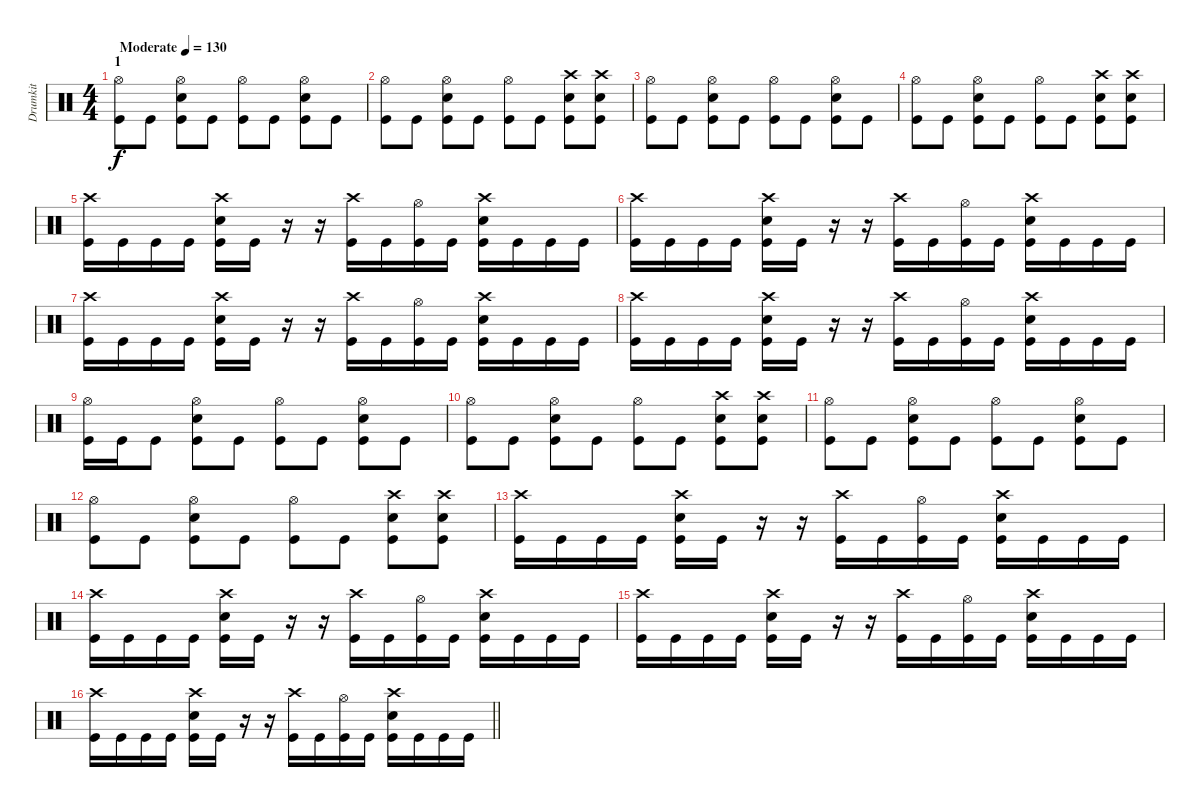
\track ("Drumkit" "Drumkit") {instrument percussion}
\staff {score}
\articulation defaults
\ts (4 4)
\section ("" "1")
\tempo (130 "Moderate")
\clef neutral
\ks c
("Hi-Hat (open)" "Kick (hit)").8{dy f} "Kick (hit)".8 ("Hi-Hat (open)" "Snare (hit) 2" "Kick (hit)").8 "Kick (hit)".8 ("Hi-Hat (open)" "Kick (hit)").8 "Kick (hit)".8 ("Hi-Hat (open)" "Snare (hit) 2" "Kick (hit)").8 "Kick (hit)".8 |
("Hi-Hat (open)" "Kick (hit)").8 "Kick (hit)".8 ("Hi-Hat (open)" "Snare (hit) 2" "Kick (hit)").8 "Kick (hit)".8 ("Hi-Hat (open)" "Kick (hit)").8 "Kick (hit)".8 ("Crash high (hit)" "Snare (hit) 2" "Kick (hit)").8 ("Crash high (hit)" "Snare (hit) 2" "Kick (hit)").8 |
("Hi-Hat (open)" "Kick (hit)").8 "Kick (hit)".8 ("Hi-Hat (open)" "Snare (hit) 2" "Kick (hit)").8 "Kick (hit)".8 ("Hi-Hat (open)" "Kick (hit)").8 "Kick (hit)".8 ("Hi-Hat (open)" "Snare (hit) 2" "Kick (hit)").8 "Kick (hit)".8 |
("Hi-Hat (open)" "Kick (hit)").8 "Kick (hit)".8 ("Hi-Hat (open)" "Snare (hit) 2" "Kick (hit)").8 "Kick (hit)".8 ("Hi-Hat (open)" "Kick (hit)").8 "Kick (hit)".8 ("Crash high (hit)" "Snare (hit) 2" "Kick (hit)").8 ("Crash high (hit)" "Snare (hit) 2" "Kick (hit)").8 |
("Crash high (hit)" "Kick (hit)").16 "Kick (hit)".16 "Kick (hit)".16 "Kick (hit)".16 ("Crash high (hit)" "Snare (hit) 2" "Kick (hit)").16 "Kick (hit)".16 r.16 r.16 ("Crash high (hit)" "Kick (hit)").16 "Kick (hit)".16 ("Hi-Hat (open)" "Kick (hit)").16 "Kick (hit)".16 ("Crash high (hit)" "Snare (hit) 2" "Kick (hit)").16 "Kick (hit)".16 "Kick (hit)".16 "Kick (hit)".16 |
("Crash high (hit)" "Kick (hit)").16 "Kick (hit)".16 "Kick (hit)".16 "Kick (hit)".16 ("Crash high (hit)" "Snare (hit) 2" "Kick (hit)").16 "Kick (hit)".16 r.16 r.16 ("Crash high (hit)" "Kick (hit)").16 "Kick (hit)".16 ("Hi-Hat (open)" "Kick (hit)").16 "Kick (hit)".16 ("Crash high (hit)" "Snare (hit) 2" "Kick (hit)").16 "Kick (hit)".16 "Kick (hit)".16 "Kick (hit)".16 |
("Crash high (hit)" "Kick (hit)").16 "Kick (hit)".16 "Kick (hit)".16 "Kick (hit)".16 ("Crash high (hit)" "Snare (hit) 2" "Kick (hit)").16 "Kick (hit)".16 r.16 r.16 ("Crash high (hit)" "Kick (hit)").16 "Kick (hit)".16 ("Hi-Hat (open)" "Kick (hit)").16 "Kick (hit)".16 ("Crash high (hit)" "Snare (hit) 2" "Kick (hit)").16 "Kick (hit)".16 "Kick (hit)".16 "Kick (hit)".16 |
("Crash high (hit)" "Kick (hit)").16 "Kick (hit)".16 "Kick (hit)".16 "Kick (hit)".16 ("Crash high (hit)" "Snare (hit) 2" "Kick (hit)").16 "Kick (hit)".16 r.16 r.16 ("Crash high (hit)" "Kick (hit)").16 "Kick (hit)".16 ("Hi-Hat (open)" "Kick (hit)").16 "Kick (hit)".16 ("Crash high (hit)" "Snare (hit) 2" "Kick (hit)").16 "Kick (hit)".16 "Kick (hit)".16 "Kick (hit)".16 |
("Hi-Hat (open)" "Kick (hit)").16 "Kick (hit)".16 "Kick (hit)".8 ("Hi-Hat (open)" "Snare (hit) 2" "Kick (hit)").8 "Kick (hit)".8 ("Hi-Hat (open)" "Kick (hit)").8 "Kick (hit)".8 ("Hi-Hat (open)" "Snare (hit) 2" "Kick (hit)").8 "Kick (hit)".8 |
("Hi-Hat (open)" "Kick (hit)").8 "Kick (hit)".8 ("Hi-Hat (open)" "Snare (hit) 2" "Kick (hit)").8 "Kick (hit)".8 ("Hi-Hat (open)" "Kick (hit)").8 "Kick (hit)".8 ("Crash high (hit)" "Snare (hit) 2" "Kick (hit)").8 ("Crash high (hit)" "Snare (hit) 2" "Kick (hit)").8 |
("Hi-Hat (open)" "Kick (hit)").8 "Kick (hit)".8 ("Hi-Hat (open)" "Snare (hit) 2" "Kick (hit)").8 "Kick (hit)".8 ("Hi-Hat (open)" "Kick (hit)").8 "Kick (hit)".8 ("Hi-Hat (open)" "Snare (hit) 2" "Kick (hit)").8 "Kick (hit)".8 |
("Hi-Hat (open)" "Kick (hit)").8 "Kick (hit)".8 ("Hi-Hat (open)" "Snare (hit) 2" "Kick (hit)").8 "Kick (hit)".8 ("Hi-Hat (open)" "Kick (hit)").8 "Kick (hit)".8 ("Crash high (hit)" "Snare (hit) 2" "Kick (hit)").8 ("Crash high (hit)" "Snare (hit) 2" "Kick (hit)").8 |
("Crash high (hit)" "Kick (hit)").16 "Kick (hit)".16 "Kick (hit)".16 "Kick (hit)".16 ("Crash high (hit)" "Snare (hit) 2" "Kick (hit)").16 "Kick (hit)".16 r.16 r.16 ("Crash high (hit)" "Kick (hit)").16 "Kick (hit)".16 ("Hi-Hat (open)" "Kick (hit)").16 "Kick (hit)".16 ("Crash high (hit)" "Snare (hit) 2" "Kick (hit)").16 "Kick (hit)".16 "Kick (hit)".16 "Kick (hit)".16 |
("Crash high (hit)" "Kick (hit)").16 "Kick (hit)".16 "Kick (hit)".16 "Kick (hit)".16 ("Crash high (hit)" "Snare (hit) 2" "Kick (hit)").16 "Kick (hit)".16 r.16 r.16 ("Crash high (hit)" "Kick (hit)").16 "Kick (hit)".16 ("Hi-Hat (open)" "Kick (hit)").16 "Kick (hit)".16 ("Crash high (hit)" "Snare (hit) 2" "Kick (hit)").16 "Kick (hit)".16 "Kick (hit)".16 "Kick (hit)".16 |
("Crash high (hit)" "Kick (hit)").16 "Kick (hit)".16 "Kick (hit)".16 "Kick (hit)".16 ("Crash high (hit)" "Snare (hit) 2" "Kick (hit)").16 "Kick (hit)".16 r.16 r.16 ("Crash high (hit)" "Kick (hit)").16 "Kick (hit)".16 ("Hi-Hat (open)" "Kick (hit)").16 "Kick (hit)".16 ("Crash high (hit)" "Snare (hit) 2" "Kick (hit)").16 "Kick (hit)".16 "Kick (hit)".16 "Kick (hit)".16 |
\barLineRight lightlight
("Crash high (hit)" "Kick (hit)").16 "Kick (hit)".16 "Kick (hit)".16 "Kick (hit)".16 ("Crash high (hit)" "Snare (hit) 2" "Kick (hit)").16 "Kick (hit)".16 r.16 r.16 ("Crash high (hit)" "Kick (hit)").16 "Kick (hit)".16 ("Hi-Hat (open)" "Kick (hit)").16 "Kick (hit)".16 ("Crash high (hit)" "Snare (hit) 2" "Kick (hit)").16 "Kick (hit)".16 "Kick (hit)".16 "Kick (hit)".16
